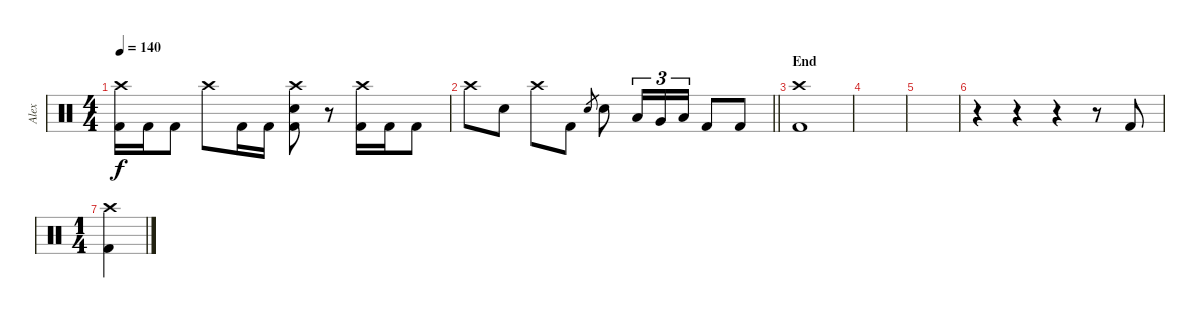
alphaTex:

\track ("Alex" "Alex") {instrument percussion}
\staff {score}
\articulation defaults
\ts (4 4)
\tempo 140
\clef neutral
\ks c
("Crash high (hit)" "Kick (hit) 2").16{dy f} "Kick (hit) 2".16 "Kick (hit) 2".8 "Crash high (hit)".8 "Kick (hit) 2".16 "Kick (hit) 2".16 ("Crash high (hit)" "Electric Snare (hit)" "Kick (hit) 2").8 r.8 ("Crash high (hit)" "Kick (hit) 2").16 "Kick (hit) 2".16 "Kick (hit) 2".8 |
\barLineRight lightlight "Crash high (hit)".8 "Electric Snare (hit)".8 "Crash high (hit)".8 "Kick (hit) 2".8 "Electric Snare (hit)".8{gr} "Electric Snare (hit)".8 "Low Tom (hit)".16{tu (3 2)} "Very Low Tom (hit)".16{tu (3 2)} "Low Floor Tom (hit)".16{tu (3 2)} "Kick (hit) 2".8 "Kick (hit) 2".8
|
\section ("" "End")
("Crash high (hit)" "Kick (hit) 2").1 |
|
|
r.4 r.4 r.4 r.8 "Kick (hit) 2".8 |
\ts (1 4)
("Crash high (hit)" "Kick (hit) 2").4
